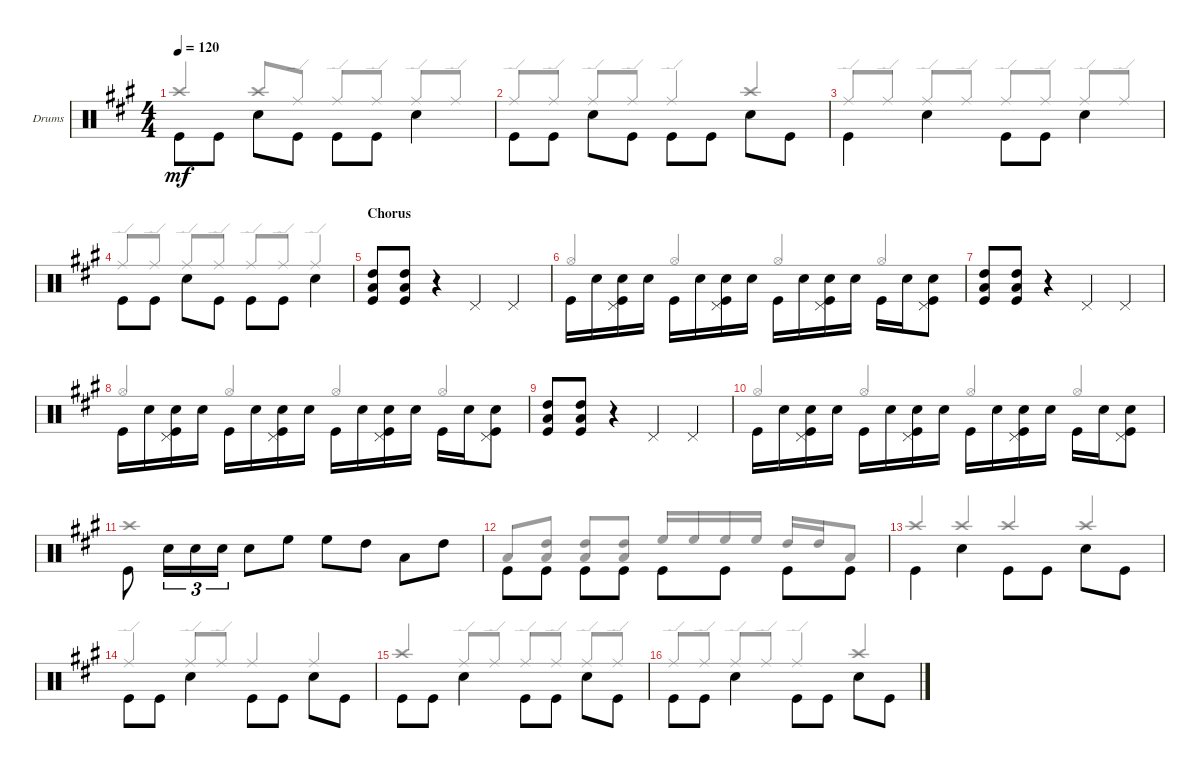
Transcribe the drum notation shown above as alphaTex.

\defaultSystemsLayout 4
\bracketExtendMode groupsimilarinstruments
\firstSystemTrackNameOrientation horizontal
\otherSystemsTrackNameOrientation horizontal
\track ("PETER CRISS" "Drums") {mute instrument percussion}
\staff {score}
\articulation defaults
\voice
\ts (4 4)
\tempo 120
\clef neutral
\ks a "Kick (hit)".8{dy mf beam invert} "Kick (hit)".8 "Snare (hit) 2".8{beam invert} "Kick (hit)".8 "Kick (hit)".8{beam invert} "Kick (hit)".8 "Snare (hit) 2".4{beam invert}
|
"Kick (hit)".8{beam invert} "Kick (hit)".8 "Snare (hit) 2".8{beam invert} "Kick (hit)".8 "Kick (hit)".8{beam invert} "Kick (hit)".8 "Snare (hit) 2".8{beam invert} "Kick (hit)".8 |
"Kick (hit)".4{beam invert} "Snare (hit) 2".4{beam invert} "Kick (hit)".8{beam invert} "Kick (hit)".8 "Snare (hit) 2".4{beam invert} |
"Kick (hit)".8{beam invert} "Kick (hit)".8 "Snare (hit) 2".8{beam invert} "Kick (hit)".8 "Kick (hit)".8{beam invert} "Kick (hit)".8 "Snare (hit) 2".4{beam invert} |
\section ("" "Chorus")
("High Tom (hit)" "Kick (hit)" "Low Tom (hit)").8 ("Kick (hit)" "Low Tom (hit)" "High Tom (hit)").8 r.4 "Pedal Hi-Hat (hit)".4 "Pedal Hi-Hat (hit)".4 |
"Kick (hit)".16{beam invert} "Snare (hit) 2".16 ("Snare (hit) 2" "Kick (hit)" "Pedal Hi-Hat (hit)").16 "Snare (hit) 2".16 "Kick (hit)".16{beam invert} "Snare (hit) 2".16 ("Snare (hit) 2" "Kick (hit)" "Pedal Hi-Hat (hit)").16 "Snare (hit) 2".16 "Kick (hit)".16{beam invert} "Snare (hit) 2".16 ("Snare (hit) 2" "Kick (hit)" "Pedal Hi-Hat (hit)").16 "Snare (hit) 2".16 "Kick (hit)".16{beam invert} "Snare (hit) 2".16 ("Snare (hit) 2" "Kick (hit)" "Pedal Hi-Hat (hit)").8 |
("High Tom (hit)" "Kick (hit)" "Low Tom (hit)").8 ("Kick (hit)" "Low Tom (hit)" "High Tom (hit)").8 r.4 "Pedal Hi-Hat (hit)".4 "Pedal Hi-Hat (hit)".4 |
"Kick (hit)".16{beam invert} "Snare (hit) 2".16 ("Snare (hit) 2" "Kick (hit)" "Pedal Hi-Hat (hit)").16 "Snare (hit) 2".16 "Kick (hit)".16{beam invert} "Snare (hit) 2".16 ("Snare (hit) 2" "Kick (hit)" "Pedal Hi-Hat (hit)").16 "Snare (hit) 2".16 "Kick (hit)".16{beam invert} "Snare (hit) 2".16 ("Snare (hit) 2" "Kick (hit)" "Pedal Hi-Hat (hit)").16 "Snare (hit) 2".16 "Kick (hit)".16{beam invert} "Snare (hit) 2".16 ("Snare (hit) 2" "Kick (hit)" "Pedal Hi-Hat (hit)").8 |
("High Tom (hit)" "Kick (hit)" "Low Tom (hit)").8 ("Kick (hit)" "Low Tom (hit)" "High Tom (hit)").8 r.4 "Pedal Hi-Hat (hit)".4 "Pedal Hi-Hat (hit)".4 |
"Kick (hit)".16{beam invert} "Snare (hit) 2".16 ("Snare (hit) 2" "Kick (hit)" "Pedal Hi-Hat (hit)").16 "Snare (hit) 2".16 "Kick (hit)".16{beam invert} "Snare (hit) 2".16 ("Snare (hit) 2" "Kick (hit)" "Pedal Hi-Hat (hit)").16 "Snare (hit) 2".16 "Kick (hit)".16{beam invert} "Snare (hit) 2".16 ("Snare (hit) 2" "Kick (hit)" "Pedal Hi-Hat (hit)").16 "Snare (hit) 2".16 "Kick (hit)".16{beam invert} "Snare (hit) 2".16 ("Snare (hit) 2" "Kick (hit)" "Pedal Hi-Hat (hit)").8 |
"Kick (hit)".8{beam invert} "Snare (hit) 2".16{tu (3 2) beam invert} "Snare (hit) 2".16{tu (3 2)} "Snare (hit) 2".16{tu (3 2)} "Snare (hit) 2".8{beam invert} "High Floor Tom (hit)".8 "High Floor Tom (hit)".8{beam invert} "High Tom (hit)".8 "Low Tom (hit)".8{beam invert} "High Tom (hit)".8 |
"Kick (hit)".8{beam invert} "Kick (hit)".8 "Kick (hit)".8{beam invert} "Kick (hit)".8 "Kick (hit)".8{beam invert} "Kick (hit)".8 "Kick (hit)".8{beam invert} "Kick (hit)".8 |
"Kick (hit)".4{beam invert} "Snare (hit) 2".4{beam invert} "Kick (hit)".8{beam invert} "Kick (hit)".8 "Snare (hit) 2".8{beam invert} "Kick (hit)".8 |
"Kick (hit)".8{beam invert} "Kick (hit)".8 "Snare (hit) 2".4{beam invert} "Kick (hit)".8{beam invert} "Kick (hit)".8 "Snare (hit) 2".8{beam invert} "Kick (hit)".8 |
"Kick (hit)".8{beam invert} "Kick (hit)".8 "Snare (hit) 2".4{beam invert} "Kick (hit)".8{beam invert} "Kick (hit)".8 "Snare (hit) 2".8{beam invert} "Kick (hit)".8 |
"Kick (hit)".8{beam invert} "Kick (hit)".8 "Snare (hit) 2".4{beam invert} "Kick (hit)".8{beam invert} "Kick (hit)".8 "Snare (hit) 2".8{beam invert} "Kick (hit)".8
\voice
\clef neutral
\ottava regular
\simile none
\ks a "Crash high (hit)".4{dy mf beam invert} "Crash high (hit)".8{beam invert} "Ride (edge)".8 "Ride (edge)".8{beam invert} "Ride (edge)".8 "Ride (edge)".8{beam invert} "Ride (edge)".8
|
"Ride (edge)".8{beam invert} "Ride (edge)".8 "Ride (edge)".8{beam invert} "Ride (edge)".8 "Ride (edge)".4{beam invert} "Crash high (hit)".4{beam invert} |
"Ride (edge)".8{beam invert} "Ride (edge)".8 "Ride (edge)".8{beam invert} "Ride (edge)".8 "Ride (edge)".8{beam invert} "Ride (edge)".8 "Ride (edge)".8{beam invert} "Ride (edge)".8 |
"Ride (edge)".8{beam invert} "Ride (edge)".8 "Ride (edge)".8{beam invert} "Ride (edge)".8 "Ride (edge)".8{beam invert} "Ride (edge)".8 "Ride (edge)".4{beam invert} |
|
"Hi-Hat (open)".4{beam invert} "Hi-Hat (open)".4{beam invert} "Hi-Hat (open)".4{beam invert} "Hi-Hat (open)".4{beam invert} |
|
"Hi-Hat (open)".4{beam invert} "Hi-Hat (open)".4{beam invert} "Hi-Hat (open)".4{beam invert} "Hi-Hat (open)".4{beam invert} |
|
"Hi-Hat (open)".4{beam invert} "Hi-Hat (open)".4{beam invert} "Hi-Hat (open)".4{beam invert} "Hi-Hat (open)".4{beam invert} |
"Crash high (hit)".1 |
"Low Tom (hit)".8{beam invert} ("Low Tom (hit)" "High Tom (hit)").8 ("Low Tom (hit)" "High Tom (hit)").8{beam invert} ("Low Tom (hit)" "High Tom (hit)").8 "High Floor Tom (hit)".16{beam invert} "High Floor Tom (hit)".16 "High Floor Tom (hit)".16 "High Floor Tom (hit)".16 "High Tom (hit)".16{beam invert} "High Tom (hit)".16 "Low Tom (hit)".8 |
"Crash high (hit)".4{beam invert} "Crash high (hit)".4{beam invert} "Crash high (hit)".4{beam invert} "Crash high (hit)".4{beam invert} |
"Ride (edge)".4{beam invert} "Ride (edge)".8{beam invert} "Ride (edge)".8 "Ride (middle)".4{beam invert} "Ride (middle)".4{beam invert} |
"Crash high (hit)".4{beam invert} "Ride (edge)".8{beam invert} "Ride (edge)".8 "Ride (edge)".8{beam invert} "Ride (edge)".8 "Ride (edge)".8{beam invert} "Ride (edge)".8 |
"Ride (edge)".8{beam invert} "Ride (edge)".8 "Ride (edge)".8{beam invert} "Ride (edge)".8 "Ride (edge)".4{beam invert} "Crash high (hit)".4{beam invert}
